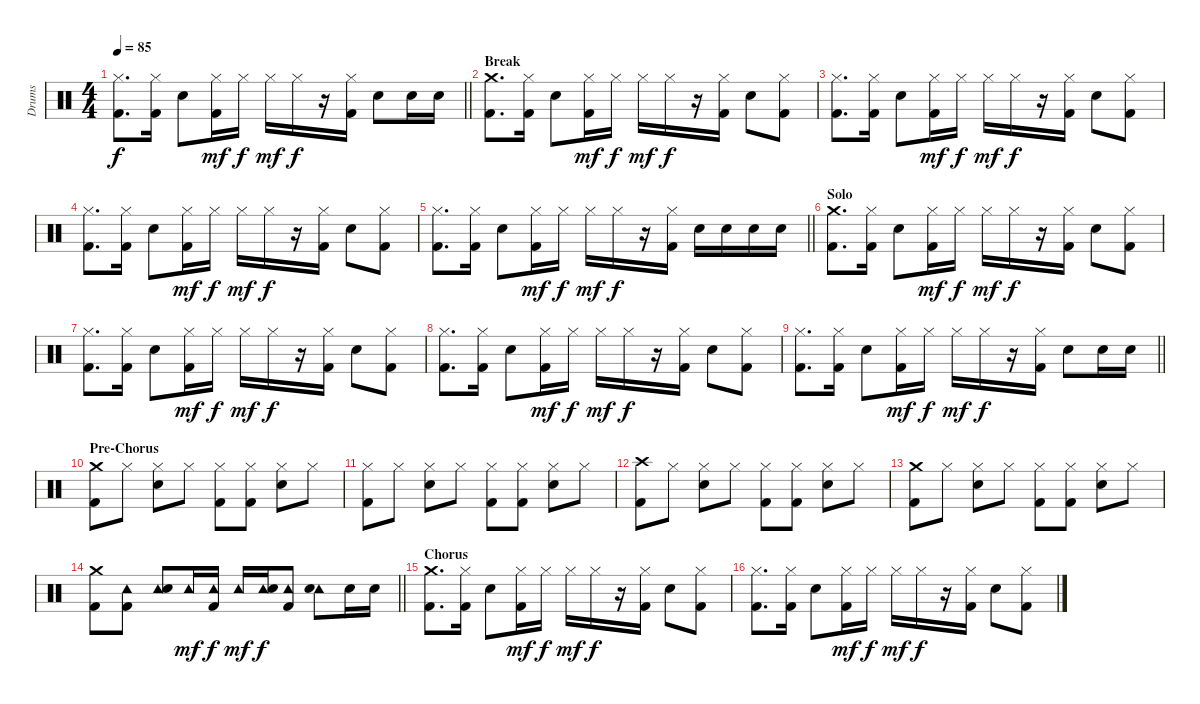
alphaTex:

\track ("Drums" "Drums") {instrument percussion}
\staff {score}
\articulation defaults
\ts (4 4)
\tempo 85
\clef neutral
\barLineRight lightlight
\ks c
("Hi-Hat (closed)" "Kick (hit) 2").8{d dy f} ("Hi-Hat (closed)" "Kick (hit) 2").16 "Snare (hit) 2".8 ("Hi-Hat (closed)" "Kick (hit) 2").16{dy mf} "Hi-Hat (closed)".16{dy f} "Hi-Hat (closed)".16{dy mf} "Hi-Hat (closed)".16{dy f} r.16 ("Hi-Hat (closed)" "Kick (hit) 2").16 "Snare (hit) 2".8 "Snare (hit) 2".16 "Snare (hit) 2".16 |
\section ("" "Break")
("Crash medium (hit)" "Kick (hit) 2").8{d} ("Hi-Hat (closed)" "Kick (hit) 2").16 "Snare (hit) 2".8 ("Hi-Hat (closed)" "Kick (hit) 2").16{dy mf} "Hi-Hat (closed)".16{dy f} "Hi-Hat (closed)".16{dy mf} "Hi-Hat (closed)".16{dy f} r.16 ("Hi-Hat (closed)" "Kick (hit) 2").16 "Snare (hit) 2".8 ("Hi-Hat (closed)" "Kick (hit) 2").8 |
("Hi-Hat (closed)" "Kick (hit) 2").8{d} ("Hi-Hat (closed)" "Kick (hit) 2").16 "Snare (hit) 2".8 ("Hi-Hat (closed)" "Kick (hit) 2").16{dy mf} "Hi-Hat (closed)".16{dy f} "Hi-Hat (closed)".16{dy mf} "Hi-Hat (closed)".16{dy f} r.16 ("Hi-Hat (closed)" "Kick (hit) 2").16 "Snare (hit) 2".8 ("Hi-Hat (closed)" "Kick (hit) 2").8 |
("Hi-Hat (closed)" "Kick (hit) 2").8{d} ("Hi-Hat (closed)" "Kick (hit) 2").16 "Snare (hit) 2".8 ("Hi-Hat (closed)" "Kick (hit) 2").16{dy mf} "Hi-Hat (closed)".16{dy f} "Hi-Hat (closed)".16{dy mf} "Hi-Hat (closed)".16{dy f} r.16 ("Hi-Hat (closed)" "Kick (hit) 2").16 "Snare (hit) 2".8 ("Hi-Hat (closed)" "Kick (hit) 2").8 |
\barLineRight lightlight
("Hi-Hat (closed)" "Kick (hit) 2").8{d} ("Hi-Hat (closed)" "Kick (hit) 2").16 "Snare (hit) 2".8 ("Hi-Hat (closed)" "Kick (hit) 2").16{dy mf} "Hi-Hat (closed)".16{dy f} "Hi-Hat (closed)".16{dy mf} "Hi-Hat (closed)".16{dy f} r.16 ("Hi-Hat (closed)" "Kick (hit) 2").16 "Snare (hit) 2".16 "Snare (hit) 2".16 "Snare (hit) 2".16 "Snare (hit) 2".16 |
\section ("" "Solo")
("Crash medium (hit)" "Kick (hit) 2").8{d} ("Hi-Hat (closed)" "Kick (hit) 2").16 "Snare (hit) 2".8 ("Hi-Hat (closed)" "Kick (hit) 2").16{dy mf} "Hi-Hat (closed)".16{dy f} "Hi-Hat (closed)".16{dy mf} "Hi-Hat (closed)".16{dy f} r.16 ("Hi-Hat (closed)" "Kick (hit) 2").16 "Snare (hit) 2".8 ("Hi-Hat (closed)" "Kick (hit) 2").8 |
("Hi-Hat (closed)" "Kick (hit) 2").8{d} ("Hi-Hat (closed)" "Kick (hit) 2").16 "Snare (hit) 2".8 ("Hi-Hat (closed)" "Kick (hit) 2").16{dy mf} "Hi-Hat (closed)".16{dy f} "Hi-Hat (closed)".16{dy mf} "Hi-Hat (closed)".16{dy f} r.16 ("Hi-Hat (closed)" "Kick (hit) 2").16 "Snare (hit) 2".8 ("Hi-Hat (closed)" "Kick (hit) 2").8 |
("Hi-Hat (closed)" "Kick (hit) 2").8{d} ("Hi-Hat (closed)" "Kick (hit) 2").16 "Snare (hit) 2".8 ("Hi-Hat (closed)" "Kick (hit) 2").16{dy mf} "Hi-Hat (closed)".16{dy f} "Hi-Hat (closed)".16{dy mf} "Hi-Hat (closed)".16{dy f} r.16 ("Hi-Hat (closed)" "Kick (hit) 2").16 "Snare (hit) 2".8 ("Hi-Hat (closed)" "Kick (hit) 2").8 |
\barLineRight lightlight
("Hi-Hat (closed)" "Kick (hit) 2").8{d} ("Hi-Hat (closed)" "Kick (hit) 2").16 "Snare (hit) 2".8 ("Hi-Hat (closed)" "Kick (hit) 2").16{dy mf} "Hi-Hat (closed)".16{dy f} "Hi-Hat (closed)".16{dy mf} "Hi-Hat (closed)".16{dy f} r.16 ("Hi-Hat (closed)" "Kick (hit) 2").16 "Snare (hit) 2".8 "Snare (hit) 2".16 "Snare (hit) 2".16 |
\section ("" "Pre-Chorus")
("Crash medium (hit)" "Kick (hit) 2").8 "Hi-Hat (closed)".8 ("Hi-Hat (closed)" "Snare (hit) 2").8 "Hi-Hat (closed)".8 ("Hi-Hat (closed)" "Kick (hit) 2").8 ("Hi-Hat (closed)" "Kick (hit) 2").8 ("Hi-Hat (closed)" "Snare (hit) 2").8 "Hi-Hat (closed)".8 |
("Hi-Hat (closed)" "Kick (hit) 2").8 "Hi-Hat (closed)".8 ("Hi-Hat (closed)" "Snare (hit) 2").8 "Hi-Hat (closed)".8 ("Hi-Hat (closed)" "Kick (hit) 2").8 ("Hi-Hat (closed)" "Kick (hit) 2").8 ("Hi-Hat (closed)" "Snare (hit) 2").8 "Hi-Hat (closed)".8 |
("Crash high (hit)" "Kick (hit) 2").8 "Hi-Hat (closed)".8 ("Hi-Hat (closed)" "Snare (hit) 2").8 "Hi-Hat (closed)".8 ("Hi-Hat (closed)" "Kick (hit) 2").8 ("Hi-Hat (closed)" "Kick (hit) 2").8 ("Hi-Hat (closed)" "Snare (hit) 2").8 "Hi-Hat (closed)".8 |
("Crash medium (hit)" "Kick (hit) 2").8 "Hi-Hat (closed)".8 ("Hi-Hat (closed)" "Snare (hit) 2").8 "Hi-Hat (closed)".8 ("Hi-Hat (closed)" "Kick (hit) 2").8 ("Hi-Hat (closed)" "Kick (hit) 2").8 ("Hi-Hat (closed)" "Snare (hit) 2").8 "Hi-Hat (closed)".8 |
\barLineRight lightlight
("Crash medium (hit)" "Kick (hit) 2").8 ("Tambourine (hit)" "Kick (hit) 2").8 ("Tambourine (hit)" "Snare (hit) 2").8 "Tambourine (hit)".16{dy mf} ("Tambourine (hit)" "Kick (hit) 2").16{dy f} "Tambourine (hit)".16{dy mf} ("Tambourine (hit)" "Snare (hit) 2").16{dy f} ("Tambourine (hit)" "Kick (hit) 2").8 ("Tambourine (hit)" "Snare (hit) 2").8 "Snare (hit) 2".16 "Snare (hit) 2".16 |
\section ("" "Chorus")
("Crash medium (hit)" "Kick (hit) 2").8{d} ("Hi-Hat (closed)" "Kick (hit) 2").16 "Snare (hit) 2".8 ("Hi-Hat (closed)" "Kick (hit) 2").16{dy mf} "Hi-Hat (closed)".16{dy f} "Hi-Hat (closed)".16{dy mf} "Hi-Hat (closed)".16{dy f} r.16 ("Hi-Hat (closed)" "Kick (hit) 2").16 "Snare (hit) 2".8 ("Hi-Hat (closed)" "Kick (hit) 2").8 |
("Hi-Hat (closed)" "Kick (hit) 2").8{d} ("Hi-Hat (closed)" "Kick (hit) 2").16 "Snare (hit) 2".8 ("Hi-Hat (closed)" "Kick (hit) 2").16{dy mf} "Hi-Hat (closed)".16{dy f} "Hi-Hat (closed)".16{dy mf} "Hi-Hat (closed)".16{dy f} r.16 ("Hi-Hat (closed)" "Kick (hit) 2").16 "Snare (hit) 2".8 ("Hi-Hat (closed)" "Kick (hit) 2").8
